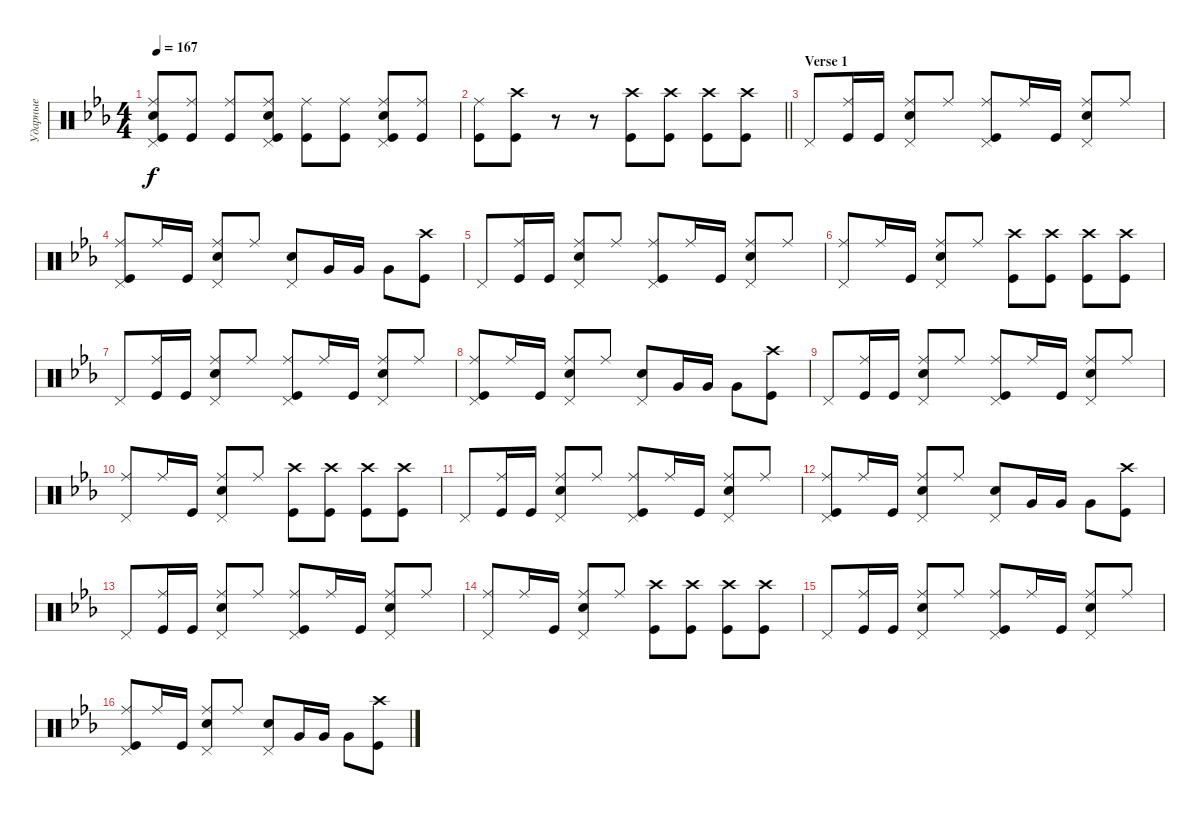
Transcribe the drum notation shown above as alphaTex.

\track ("Ударные" "Ударные") {instrument percussion}
\staff {score}
\articulation defaults
\ts (4 4)
\tempo 167
\clef neutral
\ks cminor
("Ride (middle)" "Snare (hit) 2" "Kick (hit)" "Pedal Hi-Hat (hit)").8{dy f} ("Kick (hit)" "Ride (middle)").8 ("Ride (middle)" "Kick (hit)").8 ("Ride (middle)" "Snare (hit) 2" "Kick (hit)" "Pedal Hi-Hat (hit)").8 ("Ride (middle)" "Kick (hit)").8 ("Ride (middle)" "Kick (hit)").8 ("Ride (middle)" "Kick (hit)" "Snare (hit) 2" "Pedal Hi-Hat (hit)").8 ("Ride (middle)" "Kick (hit)").8 |
\barLineRight lightlight
("Ride (middle)" "Kick (hit)").8 ("Crash high (hit)" "Kick (hit)").8 r.8 r.8 ("Kick (hit)" "Crash high (hit)").8 ("Kick (hit)" "Crash high (hit)").8 ("Kick (hit)" "Crash high (hit)").8 ("Kick (hit)" "Crash high (hit)").8 |
\section ("" "Verse 1")
"Pedal Hi-Hat (hit)".8 ("Ride (middle)" "Kick (hit)").16 "Kick (hit)".16 ("Ride (middle)" "Snare (hit) 2" "Pedal Hi-Hat (hit)").8 "Ride (middle)".8 ("Ride (middle)" "Kick (hit)" "Pedal Hi-Hat (hit)").8 "Ride (middle)".16 "Kick (hit)".16 ("Ride (middle)" "Snare (hit) 2" "Pedal Hi-Hat (hit)").8 "Ride (middle)".8 |
("Ride (middle)" "Kick (hit)" "Pedal Hi-Hat (hit)").8 "Ride (middle)".16 "Kick (hit)".16 ("Ride (middle)" "Snare (hit) 2" "Pedal Hi-Hat (hit)").8 "Ride (middle)".8 ("Pedal Hi-Hat (hit)" "Snare (hit) 2").8 "Very Low Tom (hit)".16 "Very Low Tom (hit)".16 "Very Low Tom (hit)".8 ("Crash high (hit)" "Kick (hit)").8 |
"Pedal Hi-Hat (hit)".8 ("Ride (middle)" "Kick (hit)").16 "Kick (hit)".16 ("Ride (middle)" "Snare (hit) 2" "Pedal Hi-Hat (hit)").8 "Ride (middle)".8 ("Ride (middle)" "Kick (hit)" "Pedal Hi-Hat (hit)").8 "Ride (middle)".16 "Kick (hit)".16 ("Ride (middle)" "Snare (hit) 2" "Pedal Hi-Hat (hit)").8 "Ride (middle)".8 |
("Pedal Hi-Hat (hit)" "Ride (middle)").8 "Ride (middle)".16 "Kick (hit)".16 ("Ride (middle)" "Snare (hit) 2" "Pedal Hi-Hat (hit)").8 "Ride (middle)".8 ("Kick (hit)" "Crash high (hit)").8 ("Crash high (hit)" "Kick (hit)").8 ("Crash high (hit)" "Kick (hit)").8 ("Crash high (hit)" "Kick (hit)").8 |
"Pedal Hi-Hat (hit)".8 ("Ride (middle)" "Kick (hit)").16 "Kick (hit)".16 ("Ride (middle)" "Snare (hit) 2" "Pedal Hi-Hat (hit)").8 "Ride (middle)".8 ("Ride (middle)" "Kick (hit)" "Pedal Hi-Hat (hit)").8 "Ride (middle)".16 "Kick (hit)".16 ("Ride (middle)" "Snare (hit) 2" "Pedal Hi-Hat (hit)").8 "Ride (middle)".8 |
("Ride (middle)" "Kick (hit)" "Pedal Hi-Hat (hit)").8 "Ride (middle)".16 "Kick (hit)".16 ("Ride (middle)" "Snare (hit) 2" "Pedal Hi-Hat (hit)").8 "Ride (middle)".8 ("Pedal Hi-Hat (hit)" "Snare (hit) 2").8 "Very Low Tom (hit)".16 "Very Low Tom (hit)".16 "Very Low Tom (hit)".8 ("Crash high (hit)" "Kick (hit)").8 |
"Pedal Hi-Hat (hit)".8 ("Ride (middle)" "Kick (hit)").16 "Kick (hit)".16 ("Ride (middle)" "Snare (hit) 2" "Pedal Hi-Hat (hit)").8 "Ride (middle)".8 ("Ride (middle)" "Kick (hit)" "Pedal Hi-Hat (hit)").8 "Ride (middle)".16 "Kick (hit)".16 ("Ride (middle)" "Snare (hit) 2" "Pedal Hi-Hat (hit)").8 "Ride (middle)".8 |
("Pedal Hi-Hat (hit)" "Ride (middle)").8 "Ride (middle)".16 "Kick (hit)".16 ("Ride (middle)" "Snare (hit) 2" "Pedal Hi-Hat (hit)").8 "Ride (middle)".8 ("Kick (hit)" "Crash high (hit)").8 ("Crash high (hit)" "Kick (hit)").8 ("Crash high (hit)" "Kick (hit)").8 ("Crash high (hit)" "Kick (hit)").8 |
"Pedal Hi-Hat (hit)".8 ("Ride (middle)" "Kick (hit)").16 "Kick (hit)".16 ("Ride (middle)" "Snare (hit) 2" "Pedal Hi-Hat (hit)").8 "Ride (middle)".8 ("Ride (middle)" "Kick (hit)" "Pedal Hi-Hat (hit)").8 "Ride (middle)".16 "Kick (hit)".16 ("Ride (middle)" "Snare (hit) 2" "Pedal Hi-Hat (hit)").8 "Ride (middle)".8 |
("Ride (middle)" "Kick (hit)" "Pedal Hi-Hat (hit)").8 "Ride (middle)".16 "Kick (hit)".16 ("Ride (middle)" "Snare (hit) 2" "Pedal Hi-Hat (hit)").8 "Ride (middle)".8 ("Pedal Hi-Hat (hit)" "Snare (hit) 2").8 "Very Low Tom (hit)".16 "Very Low Tom (hit)".16 "Very Low Tom (hit)".8 ("Crash high (hit)" "Kick (hit)").8 |
"Pedal Hi-Hat (hit)".8 ("Ride (middle)" "Kick (hit)").16 "Kick (hit)".16 ("Ride (middle)" "Snare (hit) 2" "Pedal Hi-Hat (hit)").8 "Ride (middle)".8 ("Ride (middle)" "Kick (hit)" "Pedal Hi-Hat (hit)").8 "Ride (middle)".16 "Kick (hit)".16 ("Ride (middle)" "Snare (hit) 2" "Pedal Hi-Hat (hit)").8 "Ride (middle)".8 |
("Pedal Hi-Hat (hit)" "Ride (middle)").8 "Ride (middle)".16 "Kick (hit)".16 ("Ride (middle)" "Snare (hit) 2" "Pedal Hi-Hat (hit)").8 "Ride (middle)".8 ("Kick (hit)" "Crash high (hit)").8 ("Crash high (hit)" "Kick (hit)").8 ("Crash high (hit)" "Kick (hit)").8 ("Crash high (hit)" "Kick (hit)").8 |
"Pedal Hi-Hat (hit)".8 ("Ride (middle)" "Kick (hit)").16 "Kick (hit)".16 ("Ride (middle)" "Snare (hit) 2" "Pedal Hi-Hat (hit)").8 "Ride (middle)".8 ("Ride (middle)" "Kick (hit)" "Pedal Hi-Hat (hit)").8 "Ride (middle)".16 "Kick (hit)".16 ("Ride (middle)" "Snare (hit) 2" "Pedal Hi-Hat (hit)").8 "Ride (middle)".8 |
("Ride (middle)" "Kick (hit)" "Pedal Hi-Hat (hit)").8 "Ride (middle)".16 "Kick (hit)".16 ("Ride (middle)" "Snare (hit) 2" "Pedal Hi-Hat (hit)").8 "Ride (middle)".8 ("Pedal Hi-Hat (hit)" "Snare (hit) 2").8 "Very Low Tom (hit)".16 "Very Low Tom (hit)".16 "Very Low Tom (hit)".8 ("Crash high (hit)" "Kick (hit)").8
